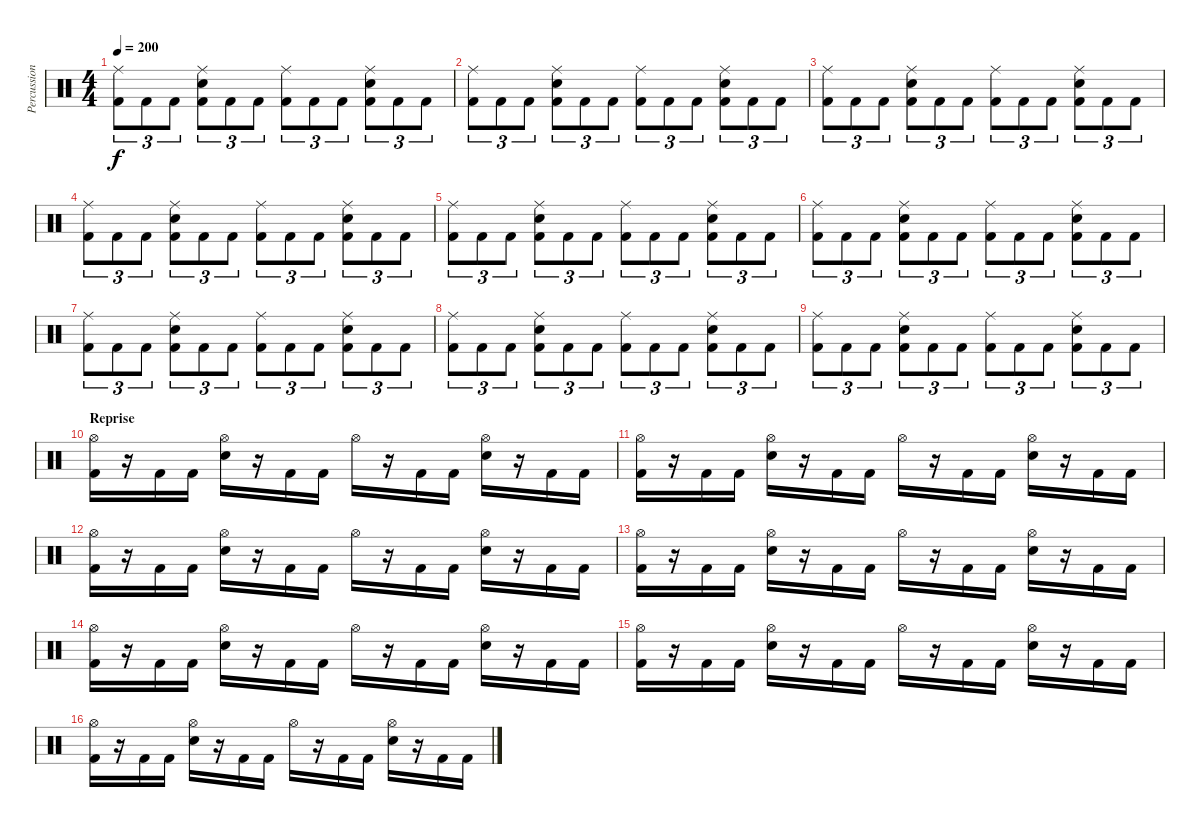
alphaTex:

\track ("Percussion" "Percussion") {instrument percussion}
\staff {score}
\articulation defaults
\ts (4 4)
\tempo 200
\clef neutral
\ks c
("Ride (middle)" "Kick (hit) 2").8{tu (3 2) dy f} "Kick (hit) 2".8{tu (3 2)} "Kick (hit) 2".8{tu (3 2)} ("Ride (middle)" "Electric Snare (hit)" "Kick (hit) 2").8{tu (3 2)} "Kick (hit) 2".8{tu (3 2)} "Kick (hit) 2".8{tu (3 2)} ("Ride (middle)" "Kick (hit) 2").8{tu (3 2)} "Kick (hit) 2".8{tu (3 2)} "Kick (hit) 2".8{tu (3 2)} ("Ride (middle)" "Electric Snare (hit)" "Kick (hit) 2").8{tu (3 2)} "Kick (hit) 2".8{tu (3 2)} "Kick (hit) 2".8{tu (3 2)} |
("Ride (middle)" "Kick (hit) 2").8{tu (3 2)} "Kick (hit) 2".8{tu (3 2)} "Kick (hit) 2".8{tu (3 2)} ("Ride (middle)" "Electric Snare (hit)" "Kick (hit) 2").8{tu (3 2)} "Kick (hit) 2".8{tu (3 2)} "Kick (hit) 2".8{tu (3 2)} ("Ride (middle)" "Kick (hit) 2").8{tu (3 2)} "Kick (hit) 2".8{tu (3 2)} "Kick (hit) 2".8{tu (3 2)} ("Ride (middle)" "Electric Snare (hit)" "Kick (hit) 2").8{tu (3 2)} "Kick (hit) 2".8{tu (3 2)} "Kick (hit) 2".8{tu (3 2)} |
("Ride (middle)" "Kick (hit) 2").8{tu (3 2)} "Kick (hit) 2".8{tu (3 2)} "Kick (hit) 2".8{tu (3 2)} ("Ride (middle)" "Electric Snare (hit)" "Kick (hit) 2").8{tu (3 2)} "Kick (hit) 2".8{tu (3 2)} "Kick (hit) 2".8{tu (3 2)} ("Ride (middle)" "Kick (hit) 2").8{tu (3 2)} "Kick (hit) 2".8{tu (3 2)} "Kick (hit) 2".8{tu (3 2)} ("Ride (middle)" "Electric Snare (hit)" "Kick (hit) 2").8{tu (3 2)} "Kick (hit) 2".8{tu (3 2)} "Kick (hit) 2".8{tu (3 2)} |
("Ride (middle)" "Kick (hit) 2").8{tu (3 2)} "Kick (hit) 2".8{tu (3 2)} "Kick (hit) 2".8{tu (3 2)} ("Ride (middle)" "Electric Snare (hit)" "Kick (hit) 2").8{tu (3 2)} "Kick (hit) 2".8{tu (3 2)} "Kick (hit) 2".8{tu (3 2)} ("Ride (middle)" "Kick (hit) 2").8{tu (3 2)} "Kick (hit) 2".8{tu (3 2)} "Kick (hit) 2".8{tu (3 2)} ("Ride (middle)" "Electric Snare (hit)" "Kick (hit) 2").8{tu (3 2)} "Kick (hit) 2".8{tu (3 2)} "Kick (hit) 2".8{tu (3 2)} |
("Ride (middle)" "Kick (hit) 2").8{tu (3 2)} "Kick (hit) 2".8{tu (3 2)} "Kick (hit) 2".8{tu (3 2)} ("Ride (middle)" "Electric Snare (hit)" "Kick (hit) 2").8{tu (3 2)} "Kick (hit) 2".8{tu (3 2)} "Kick (hit) 2".8{tu (3 2)} ("Ride (middle)" "Kick (hit) 2").8{tu (3 2)} "Kick (hit) 2".8{tu (3 2)} "Kick (hit) 2".8{tu (3 2)} ("Ride (middle)" "Electric Snare (hit)" "Kick (hit) 2").8{tu (3 2)} "Kick (hit) 2".8{tu (3 2)} "Kick (hit) 2".8{tu (3 2)} |
("Ride (middle)" "Kick (hit) 2").8{tu (3 2)} "Kick (hit) 2".8{tu (3 2)} "Kick (hit) 2".8{tu (3 2)} ("Ride (middle)" "Electric Snare (hit)" "Kick (hit) 2").8{tu (3 2)} "Kick (hit) 2".8{tu (3 2)} "Kick (hit) 2".8{tu (3 2)} ("Ride (middle)" "Kick (hit) 2").8{tu (3 2)} "Kick (hit) 2".8{tu (3 2)} "Kick (hit) 2".8{tu (3 2)} ("Ride (middle)" "Electric Snare (hit)" "Kick (hit) 2").8{tu (3 2)} "Kick (hit) 2".8{tu (3 2)} "Kick (hit) 2".8{tu (3 2)} |
("Ride (middle)" "Kick (hit) 2").8{tu (3 2)} "Kick (hit) 2".8{tu (3 2)} "Kick (hit) 2".8{tu (3 2)} ("Ride (middle)" "Electric Snare (hit)" "Kick (hit) 2").8{tu (3 2)} "Kick (hit) 2".8{tu (3 2)} "Kick (hit) 2".8{tu (3 2)} ("Ride (middle)" "Kick (hit) 2").8{tu (3 2)} "Kick (hit) 2".8{tu (3 2)} "Kick (hit) 2".8{tu (3 2)} ("Ride (middle)" "Electric Snare (hit)" "Kick (hit) 2").8{tu (3 2)} "Kick (hit) 2".8{tu (3 2)} "Kick (hit) 2".8{tu (3 2)} |
("Ride (middle)" "Kick (hit) 2").8{tu (3 2)} "Kick (hit) 2".8{tu (3 2)} "Kick (hit) 2".8{tu (3 2)} ("Ride (middle)" "Electric Snare (hit)" "Kick (hit) 2").8{tu (3 2)} "Kick (hit) 2".8{tu (3 2)} "Kick (hit) 2".8{tu (3 2)} ("Ride (middle)" "Kick (hit) 2").8{tu (3 2)} "Kick (hit) 2".8{tu (3 2)} "Kick (hit) 2".8{tu (3 2)} ("Ride (middle)" "Electric Snare (hit)" "Kick (hit) 2").8{tu (3 2)} "Kick (hit) 2".8{tu (3 2)} "Kick (hit) 2".8{tu (3 2)} |
("Ride (middle)" "Kick (hit) 2").8{tu (3 2)} "Kick (hit) 2".8{tu (3 2)} "Kick (hit) 2".8{tu (3 2)} ("Ride (middle)" "Electric Snare (hit)" "Kick (hit) 2").8{tu (3 2)} "Kick (hit) 2".8{tu (3 2)} "Kick (hit) 2".8{tu (3 2)} ("Ride (middle)" "Kick (hit) 2").8{tu (3 2)} "Kick (hit) 2".8{tu (3 2)} "Kick (hit) 2".8{tu (3 2)} ("Ride (middle)" "Electric Snare (hit)" "Kick (hit) 2").8{tu (3 2)} "Kick (hit) 2".8{tu (3 2)} "Kick (hit) 2".8{tu (3 2)} |
\section ("" "Reprise")
("Hi-Hat (open)" "Kick (hit) 2").16 r.16 "Kick (hit) 2".16 "Kick (hit) 2".16 ("Hi-Hat (open)" "Electric Snare (hit)").16 r.16 "Kick (hit) 2".16 "Kick (hit) 2".16 "Hi-Hat (open)".16 r.16 "Kick (hit) 2".16 "Kick (hit) 2".16 ("Hi-Hat (open)" "Electric Snare (hit)").16 r.16 "Kick (hit) 2".16 "Kick (hit) 2".16 |
("Hi-Hat (open)" "Kick (hit) 2").16 r.16 "Kick (hit) 2".16 "Kick (hit) 2".16 ("Hi-Hat (open)" "Electric Snare (hit)").16 r.16 "Kick (hit) 2".16 "Kick (hit) 2".16 "Hi-Hat (open)".16 r.16 "Kick (hit) 2".16 "Kick (hit) 2".16 ("Hi-Hat (open)" "Electric Snare (hit)").16 r.16 "Kick (hit) 2".16 "Kick (hit) 2".16 |
("Hi-Hat (open)" "Kick (hit) 2").16 r.16 "Kick (hit) 2".16 "Kick (hit) 2".16 ("Hi-Hat (open)" "Electric Snare (hit)").16 r.16 "Kick (hit) 2".16 "Kick (hit) 2".16 "Hi-Hat (open)".16 r.16 "Kick (hit) 2".16 "Kick (hit) 2".16 ("Hi-Hat (open)" "Electric Snare (hit)").16 r.16 "Kick (hit) 2".16 "Kick (hit) 2".16 |
("Hi-Hat (open)" "Kick (hit) 2").16 r.16 "Kick (hit) 2".16 "Kick (hit) 2".16 ("Hi-Hat (open)" "Electric Snare (hit)").16 r.16 "Kick (hit) 2".16 "Kick (hit) 2".16 "Hi-Hat (open)".16 r.16 "Kick (hit) 2".16 "Kick (hit) 2".16 ("Hi-Hat (open)" "Electric Snare (hit)").16 r.16 "Kick (hit) 2".16 "Kick (hit) 2".16 |
("Hi-Hat (open)" "Kick (hit) 2").16 r.16 "Kick (hit) 2".16 "Kick (hit) 2".16 ("Hi-Hat (open)" "Electric Snare (hit)").16 r.16 "Kick (hit) 2".16 "Kick (hit) 2".16 "Hi-Hat (open)".16 r.16 "Kick (hit) 2".16 "Kick (hit) 2".16 ("Hi-Hat (open)" "Electric Snare (hit)").16 r.16 "Kick (hit) 2".16 "Kick (hit) 2".16 |
("Hi-Hat (open)" "Kick (hit) 2").16 r.16 "Kick (hit) 2".16 "Kick (hit) 2".16 ("Hi-Hat (open)" "Electric Snare (hit)").16 r.16 "Kick (hit) 2".16 "Kick (hit) 2".16 "Hi-Hat (open)".16 r.16 "Kick (hit) 2".16 "Kick (hit) 2".16 ("Hi-Hat (open)" "Electric Snare (hit)").16 r.16 "Kick (hit) 2".16 "Kick (hit) 2".16 |
("Hi-Hat (open)" "Kick (hit) 2").16 r.16 "Kick (hit) 2".16 "Kick (hit) 2".16 ("Hi-Hat (open)" "Electric Snare (hit)").16 r.16 "Kick (hit) 2".16 "Kick (hit) 2".16 "Hi-Hat (open)".16 r.16 "Kick (hit) 2".16 "Kick (hit) 2".16 ("Hi-Hat (open)" "Electric Snare (hit)").16 r.16 "Kick (hit) 2".16 "Kick (hit) 2".16
